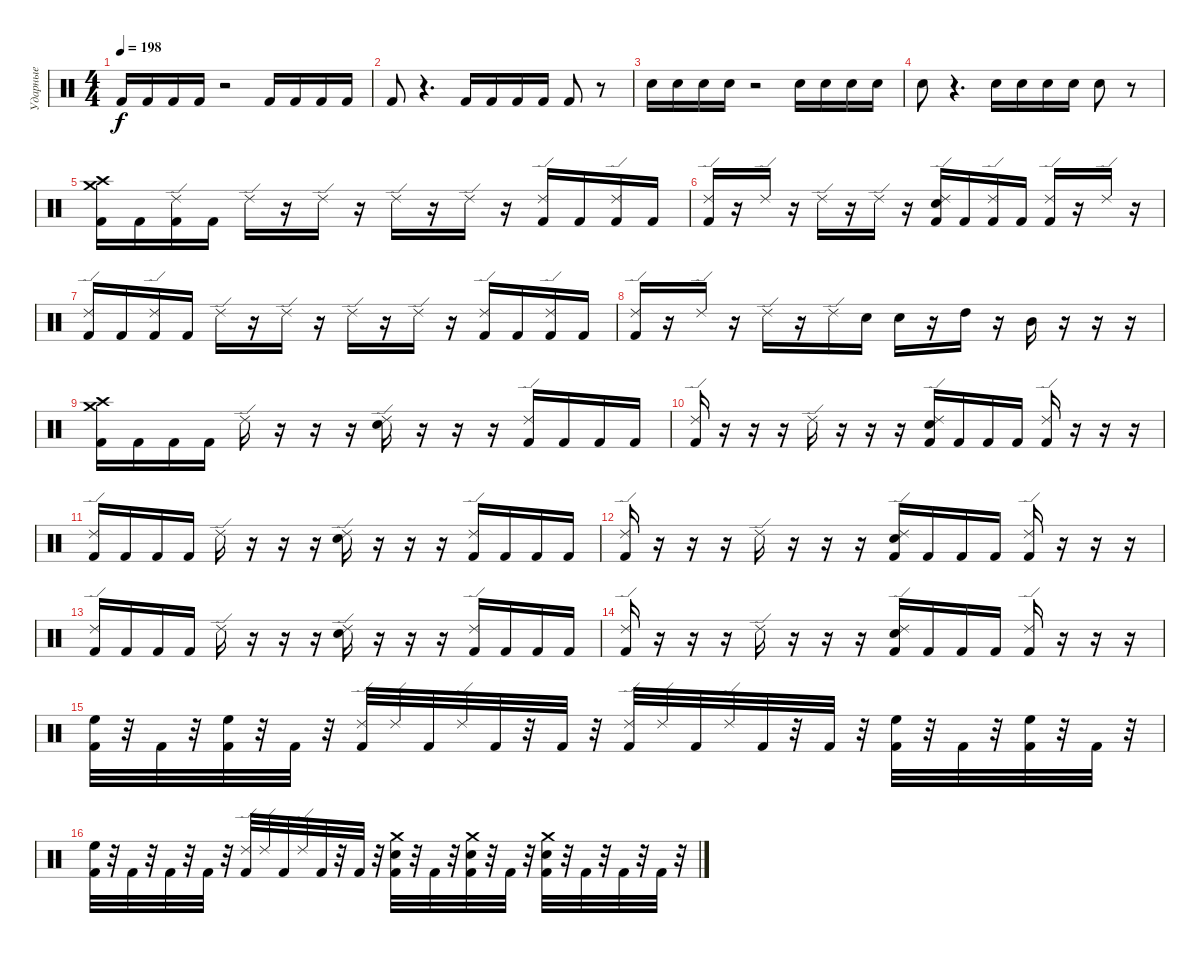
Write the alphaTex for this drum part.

\track ("Ударные" "Ударные") {instrument percussion}
\staff {score}
\articulation defaults
\ts (4 4)
\tempo 198
\clef neutral
\ks c "Kick (hit) 2".16{dy f} "Kick (hit) 2".16 "Kick (hit) 2".16 "Kick (hit) 2".16
r.2 "Kick (hit) 2".16 "Kick (hit) 2".16 "Kick (hit) 2".16 "Kick (hit) 2".16 |
"Kick (hit) 2".8 r.4{d} "Kick (hit) 2".16 "Kick (hit) 2".16 "Kick (hit) 2".16 "Kick (hit) 2".16 "Kick (hit) 2".8 r.8 |
"Electric Snare (hit)".16 "Electric Snare (hit)".16 "Electric Snare (hit)".16 "Electric Snare (hit)".16 r.2 "Electric Snare (hit)".16 "Electric Snare (hit)".16 "Electric Snare (hit)".16 "Electric Snare (hit)".16 |
"Electric Snare (hit)".8 r.4{d} "Electric Snare (hit)".16 "Electric Snare (hit)".16 "Electric Snare (hit)".16 "Electric Snare (hit)".16 "Electric Snare (hit)".8 r.8 |
("Crash medium (hit)" "Crash high (hit)" "Kick (hit) 2").16 "Kick (hit) 2".16 ("Ride (edge) 2" "Kick (hit) 2").16 "Kick (hit) 2".16 "Ride (edge) 2".16 r.16 "Ride (edge) 2".16 r.16 "Ride (edge) 2".16 r.16 "Ride (edge) 2".16 r.16 ("Ride (edge) 2" "Kick (hit) 2").16 "Kick (hit) 2".16 ("Ride (edge) 2" "Kick (hit) 2").16 "Kick (hit) 2".16 |
("Ride (edge) 2" "Kick (hit) 2").16 r.16 "Ride (edge) 2".16 r.16 "Ride (edge) 2".16 r.16 "Ride (edge) 2".16 r.16 ("Ride (edge) 2" "Electric Snare (hit)" "Kick (hit) 2").16 "Kick (hit) 2".16 ("Ride (edge) 2" "Kick (hit) 2").16 "Kick (hit) 2".16 ("Ride (edge) 2" "Kick (hit) 2").16 r.16 "Ride (edge) 2".16 r.16 |
("Ride (edge) 2" "Kick (hit) 2").16 "Kick (hit) 2".16 ("Ride (edge) 2" "Kick (hit) 2").16 "Kick (hit) 2".16 "Ride (edge) 2".16 r.16 "Ride (edge) 2".16 r.16 "Ride (edge) 2".16 r.16 "Ride (edge) 2".16 r.16 ("Ride (edge) 2" "Kick (hit) 2").16 "Kick (hit) 2".16 ("Ride (edge) 2" "Kick (hit) 2").16 "Kick (hit) 2".16 |
("Ride (edge) 2" "Kick (hit) 2").16 r.16 "Ride (edge) 2".16 r.16 "Ride (edge) 2".16 r.16 "Ride (edge) 2".16 "Electric Snare (hit)".16 "Electric Snare (hit)".16 r.16 "High Tom (hit)".16 r.16 "Mid Tom (hit)".16 r.16 r.16 r.16 |
("Crash medium (hit)" "Crash high (hit)" "Kick (hit) 2").16 "Kick (hit) 2".16 "Kick (hit) 2".16 "Kick (hit) 2".16 "Ride (edge) 2".16 r.16 r.16 r.16 ("Ride (edge) 2" "Electric Snare (hit)").16 r.16 r.16 r.16 ("Ride (edge) 2" "Kick (hit) 2").16 "Kick (hit) 2".16 "Kick (hit) 2".16 "Kick (hit) 2".16 |
("Ride (edge) 2" "Kick (hit) 2").16 r.16 r.16 r.16 "Ride (edge) 2".16 r.16 r.16 r.16 ("Ride (edge) 2" "Electric Snare (hit)" "Kick (hit) 2").16 "Kick (hit) 2".16 "Kick (hit) 2".16 "Kick (hit) 2".16 ("Ride (edge) 2" "Kick (hit) 2").16 r.16 r.16 r.16 |
("Ride (edge) 2" "Kick (hit) 2").16 "Kick (hit) 2".16 "Kick (hit) 2".16 "Kick (hit) 2".16 "Ride (edge) 2".16 r.16 r.16 r.16 ("Ride (edge) 2" "Electric Snare (hit)").16 r.16 r.16 r.16 ("Ride (edge) 2" "Kick (hit) 2").16 "Kick (hit) 2".16 "Kick (hit) 2".16 "Kick (hit) 2".16 |
("Ride (edge) 2" "Kick (hit) 2").16 r.16 r.16 r.16 "Ride (edge) 2".16 r.16 r.16 r.16 ("Ride (edge) 2" "Electric Snare (hit)" "Kick (hit) 2").16 "Kick (hit) 2".16 "Kick (hit) 2".16 "Kick (hit) 2".16 ("Ride (edge) 2" "Kick (hit) 2").16 r.16 r.16 r.16 |
("Ride (edge) 2" "Kick (hit) 2").16 "Kick (hit) 2".16 "Kick (hit) 2".16 "Kick (hit) 2".16 "Ride (edge) 2".16 r.16 r.16 r.16 ("Ride (edge) 2" "Electric Snare (hit)").16 r.16 r.16 r.16 ("Ride (edge) 2" "Kick (hit) 2").16 "Kick (hit) 2".16 "Kick (hit) 2".16 "Kick (hit) 2".16 |
("Ride (edge) 2" "Kick (hit) 2").16 r.16 r.16 r.16 "Ride (edge) 2".16 r.16 r.16 r.16 ("Ride (edge) 2" "Electric Snare (hit)" "Kick (hit) 2").16 "Kick (hit) 2".16 "Kick (hit) 2".16 "Kick (hit) 2".16 ("Ride (edge) 2" "Kick (hit) 2").16 r.16 r.16 r.16 |
("Kick (hit) 2" "High Floor Tom (hit)").32 r.32 "Kick (hit) 2".32 r.32 ("Kick (hit) 2" "High Floor Tom (hit)").32 r.32 "Kick (hit) 2".32 r.32 ("Kick (hit) 2" "Ride (edge) 2").32 "Ride (edge) 2".32 "Kick (hit) 2".32 "Ride (edge) 2".32 "Kick (hit) 2".32 r.32 "Kick (hit) 2".32 r.32 ("Kick (hit) 2" "Ride (edge) 2").32 "Ride (edge) 2".32 "Kick (hit) 2".32 "Ride (edge) 2".32 "Kick (hit) 2".32 r.32 "Kick (hit) 2".32 r.32 ("Kick (hit) 2" "High Floor Tom (hit)").32 r.32 "Kick (hit) 2".32 r.32 ("Kick (hit) 2" "High Floor Tom (hit)").32 r.32 "Kick (hit) 2".32 r.32 |
("Kick (hit) 2" "High Floor Tom (hit)").32 r.32 "Kick (hit) 2".32 r.32 "Kick (hit) 2".32 r.32 "Kick (hit) 2".32 r.32 ("Kick (hit) 2" "Ride (edge) 2").32 "Ride (edge) 2".32 "Kick (hit) 2".32 "Ride (edge) 2".32 "Kick (hit) 2".32 r.32 "Kick (hit) 2".32 r.32 ("Kick (hit) 2" "Electric Snare (hit)" "Crash medium (hit)").32 r.32 "Kick (hit) 2".32 r.32 ("Kick (hit) 2" "Electric Snare (hit)" "Crash medium (hit)").32 r.32 "Kick (hit) 2".32 r.32 ("Kick (hit) 2" "Electric Snare (hit)" "Crash medium (hit)").32 r.32 "Kick (hit) 2".32 r.32 "Kick (hit) 2".32 r.32 "Kick (hit) 2".32 r.32
